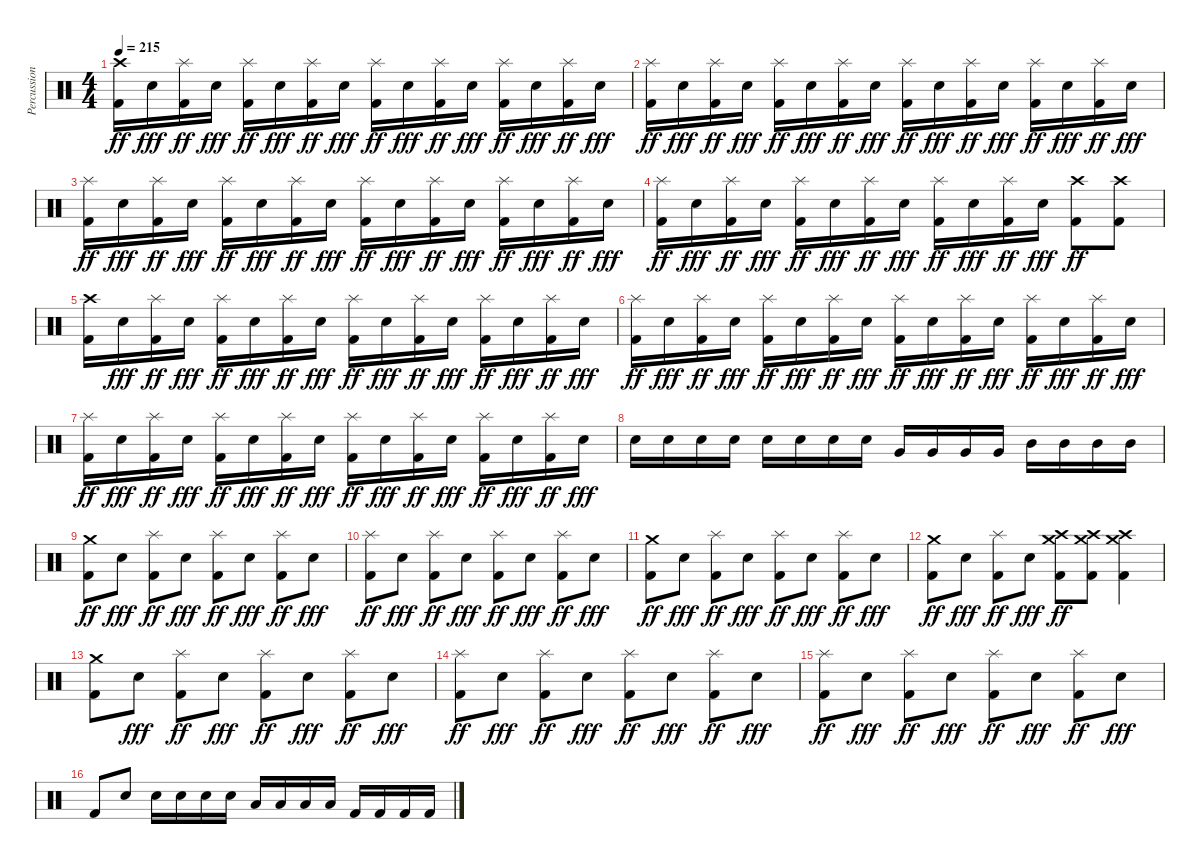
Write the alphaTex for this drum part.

\track ("Percussion" "Percussion") {instrument percussion}
\staff {score}
\articulation defaults
\ts (4 4)
\tempo 215
\clef neutral
\ks c
("Kick (hit) 2" "Crash high (hit)").16{dy ff} "Electric Snare (hit)".16{dy fff} ("Kick (hit) 2" "Splash (hit)").16{dy ff} "Electric Snare (hit)".16{dy fff} ("Kick (hit) 2" "Splash (hit)").16{dy ff} "Electric Snare (hit)".16{dy fff} ("Kick (hit) 2" "Splash (hit)").16{dy ff} "Electric Snare (hit)".16{dy fff} ("Kick (hit) 2" "Splash (hit)").16{dy ff} "Electric Snare (hit)".16{dy fff} ("Kick (hit) 2" "Splash (hit)").16{dy ff} "Electric Snare (hit)".16{dy fff} ("Kick (hit) 2" "Splash (hit)").16{dy ff} "Electric Snare (hit)".16{dy fff} ("Kick (hit) 2" "Splash (hit)").16{dy ff} "Electric Snare (hit)".16{dy fff} |
("Kick (hit) 2" "Splash (hit)").16{dy ff} "Electric Snare (hit)".16{dy fff} ("Kick (hit) 2" "Splash (hit)").16{dy ff} "Electric Snare (hit)".16{dy fff} ("Kick (hit) 2" "Splash (hit)").16{dy ff} "Electric Snare (hit)".16{dy fff} ("Kick (hit) 2" "Splash (hit)").16{dy ff} "Electric Snare (hit)".16{dy fff} ("Kick (hit) 2" "Splash (hit)").16{dy ff} "Electric Snare (hit)".16{dy fff} ("Kick (hit) 2" "Splash (hit)").16{dy ff} "Electric Snare (hit)".16{dy fff} ("Kick (hit) 2" "Splash (hit)").16{dy ff} "Electric Snare (hit)".16{dy fff} ("Kick (hit) 2" "Splash (hit)").16{dy ff} "Electric Snare (hit)".16{dy fff} |
("Kick (hit) 2" "Splash (hit)").16{dy ff} "Electric Snare (hit)".16{dy fff} ("Kick (hit) 2" "Splash (hit)").16{dy ff} "Electric Snare (hit)".16{dy fff} ("Kick (hit) 2" "Splash (hit)").16{dy ff} "Electric Snare (hit)".16{dy fff} ("Kick (hit) 2" "Splash (hit)").16{dy ff} "Electric Snare (hit)".16{dy fff} ("Kick (hit) 2" "Splash (hit)").16{dy ff} "Electric Snare (hit)".16{dy fff} ("Kick (hit) 2" "Splash (hit)").16{dy ff} "Electric Snare (hit)".16{dy fff} ("Kick (hit) 2" "Splash (hit)").16{dy ff} "Electric Snare (hit)".16{dy fff} ("Kick (hit) 2" "Splash (hit)").16{dy ff} "Electric Snare (hit)".16{dy fff} |
("Kick (hit) 2" "Splash (hit)").16{dy ff} "Electric Snare (hit)".16{dy fff} ("Kick (hit) 2" "Splash (hit)").16{dy ff} "Electric Snare (hit)".16{dy fff} ("Kick (hit) 2" "Splash (hit)").16{dy ff} "Electric Snare (hit)".16{dy fff} ("Kick (hit) 2" "Splash (hit)").16{dy ff} "Electric Snare (hit)".16{dy fff} ("Kick (hit) 2" "Splash (hit)").16{dy ff} "Electric Snare (hit)".16{dy fff} ("Kick (hit) 2" "Splash (hit)").16{dy ff} "Electric Snare (hit)".16{dy fff} ("Kick (hit) 2" "Crash high (hit)").8{dy ff} ("Kick (hit) 2" "Crash high (hit)").8 |
("Kick (hit) 2" "Crash high (hit)").16 "Electric Snare (hit)".16{dy fff} ("Kick (hit) 2" "Splash (hit)").16{dy ff} "Electric Snare (hit)".16{dy fff} ("Kick (hit) 2" "Splash (hit)").16{dy ff} "Electric Snare (hit)".16{dy fff} ("Kick (hit) 2" "Splash (hit)").16{dy ff} "Electric Snare (hit)".16{dy fff} ("Kick (hit) 2" "Splash (hit)").16{dy ff} "Electric Snare (hit)".16{dy fff} ("Kick (hit) 2" "Splash (hit)").16{dy ff} "Electric Snare (hit)".16{dy fff} ("Kick (hit) 2" "Splash (hit)").16{dy ff} "Electric Snare (hit)".16{dy fff} ("Kick (hit) 2" "Splash (hit)").16{dy ff} "Electric Snare (hit)".16{dy fff} |
("Kick (hit) 2" "Splash (hit)").16{dy ff} "Electric Snare (hit)".16{dy fff} ("Kick (hit) 2" "Splash (hit)").16{dy ff} "Electric Snare (hit)".16{dy fff} ("Kick (hit) 2" "Splash (hit)").16{dy ff} "Electric Snare (hit)".16{dy fff} ("Kick (hit) 2" "Splash (hit)").16{dy ff} "Electric Snare (hit)".16{dy fff} ("Kick (hit) 2" "Splash (hit)").16{dy ff} "Electric Snare (hit)".16{dy fff} ("Kick (hit) 2" "Splash (hit)").16{dy ff} "Electric Snare (hit)".16{dy fff} ("Kick (hit) 2" "Splash (hit)").16{dy ff} "Electric Snare (hit)".16{dy fff} ("Kick (hit) 2" "Splash (hit)").16{dy ff} "Electric Snare (hit)".16{dy fff} |
("Kick (hit) 2" "Splash (hit)").16{dy ff} "Electric Snare (hit)".16{dy fff} ("Kick (hit) 2" "Splash (hit)").16{dy ff} "Electric Snare (hit)".16{dy fff} ("Kick (hit) 2" "Splash (hit)").16{dy ff} "Electric Snare (hit)".16{dy fff} ("Kick (hit) 2" "Splash (hit)").16{dy ff} "Electric Snare (hit)".16{dy fff} ("Kick (hit) 2" "Splash (hit)").16{dy ff} "Electric Snare (hit)".16{dy fff} ("Kick (hit) 2" "Splash (hit)").16{dy ff} "Electric Snare (hit)".16{dy fff} ("Kick (hit) 2" "Splash (hit)").16{dy ff} "Electric Snare (hit)".16{dy fff} ("Kick (hit) 2" "Splash (hit)").16{dy ff} "Electric Snare (hit)".16{dy fff} |
"Electric Snare (hit)".16 "Electric Snare (hit)".16 "Electric Snare (hit)".16 "Electric Snare (hit)".16 "Electric Snare (hit)".16 "Electric Snare (hit)".16 "Electric Snare (hit)".16 "Electric Snare (hit)".16 "Very Low Tom (hit)".16 "Very Low Tom (hit)".16 "Very Low Tom (hit)".16 "Very Low Tom (hit)".16 "Mid Tom (hit)".16 "Mid Tom (hit)".16 "Mid Tom (hit)".16 "Mid Tom (hit)".16 |
("Kick (hit) 2" "Crash medium (hit)").8{dy ff} "Electric Snare (hit)".8{dy fff} ("Kick (hit) 2" "Splash (hit)").8{dy ff} "Electric Snare (hit)".8{dy fff} ("Kick (hit) 2" "Splash (hit)").8{dy ff} "Electric Snare (hit)".8{dy fff} ("Kick (hit) 2" "Splash (hit)").8{dy ff} "Electric Snare (hit)".8{dy fff} |
("Kick (hit) 2" "Splash (hit)").8{dy ff} "Electric Snare (hit)".8{dy fff} ("Kick (hit) 2" "Splash (hit)").8{dy ff} "Electric Snare (hit)".8{dy fff} ("Kick (hit) 2" "Splash (hit)").8{dy ff} "Electric Snare (hit)".8{dy fff} ("Kick (hit) 2" "Splash (hit)").8{dy ff} "Electric Snare (hit)".8{dy fff} |
("Kick (hit) 2" "Crash medium (hit)").8{dy ff} "Electric Snare (hit)".8{dy fff} ("Kick (hit) 2" "Splash (hit)").8{dy ff} "Electric Snare (hit)".8{dy fff} ("Kick (hit) 2" "Splash (hit)").8{dy ff} "Electric Snare (hit)".8{dy fff} ("Kick (hit) 2" "Splash (hit)").8{dy ff} "Electric Snare (hit)".8{dy fff} |
("Kick (hit) 2" "Crash medium (hit)").8{dy ff} "Electric Snare (hit)".8{dy fff} ("Kick (hit) 2" "Splash (hit)").8{dy ff} "Electric Snare (hit)".8{dy fff} ("Kick (hit) 2" "Crash medium (hit)" "Crash high (hit)").8{dy ff} ("Kick (hit) 2" "Crash medium (hit)" "Crash high (hit)").8 ("Kick (hit) 2" "Crash medium (hit)" "Crash high (hit)").4 |
("Kick (hit) 2" "Crash medium (hit)").8 "Electric Snare (hit)".8{dy fff} ("Kick (hit) 2" "Splash (hit)").8{dy ff} "Electric Snare (hit)".8{dy fff} ("Kick (hit) 2" "Splash (hit)").8{dy ff} "Electric Snare (hit)".8{dy fff} ("Kick (hit) 2" "Splash (hit)").8{dy ff} "Electric Snare (hit)".8{dy fff} |
("Kick (hit) 2" "Splash (hit)").8{dy ff} "Electric Snare (hit)".8{dy fff} ("Kick (hit) 2" "Splash (hit)").8{dy ff} "Electric Snare (hit)".8{dy fff} ("Kick (hit) 2" "Splash (hit)").8{dy ff} "Electric Snare (hit)".8{dy fff} ("Kick (hit) 2" "Splash (hit)").8{dy ff} "Electric Snare (hit)".8{dy fff} |
("Kick (hit) 2" "Splash (hit)").8{dy ff} "Electric Snare (hit)".8{dy fff} ("Kick (hit) 2" "Splash (hit)").8{dy ff} "Electric Snare (hit)".8{dy fff} ("Kick (hit) 2" "Splash (hit)").8{dy ff} "Electric Snare (hit)".8{dy fff} ("Kick (hit) 2" "Splash (hit)").8{dy ff} "Electric Snare (hit)".8{dy fff} |
"Kick (hit) 2".8 "Electric Snare (hit)".8 "Electric Snare (hit)".16 "Electric Snare (hit)".16 "Electric Snare (hit)".16 "Electric Snare (hit)".16 "Low Tom (hit)".16 "Low Tom (hit)".16 "Low Tom (hit)".16 "Low Tom (hit)".16 "Kick (hit) 2".16 "Kick (hit) 2".16 "Kick (hit) 2".16 "Kick (hit) 2".16
